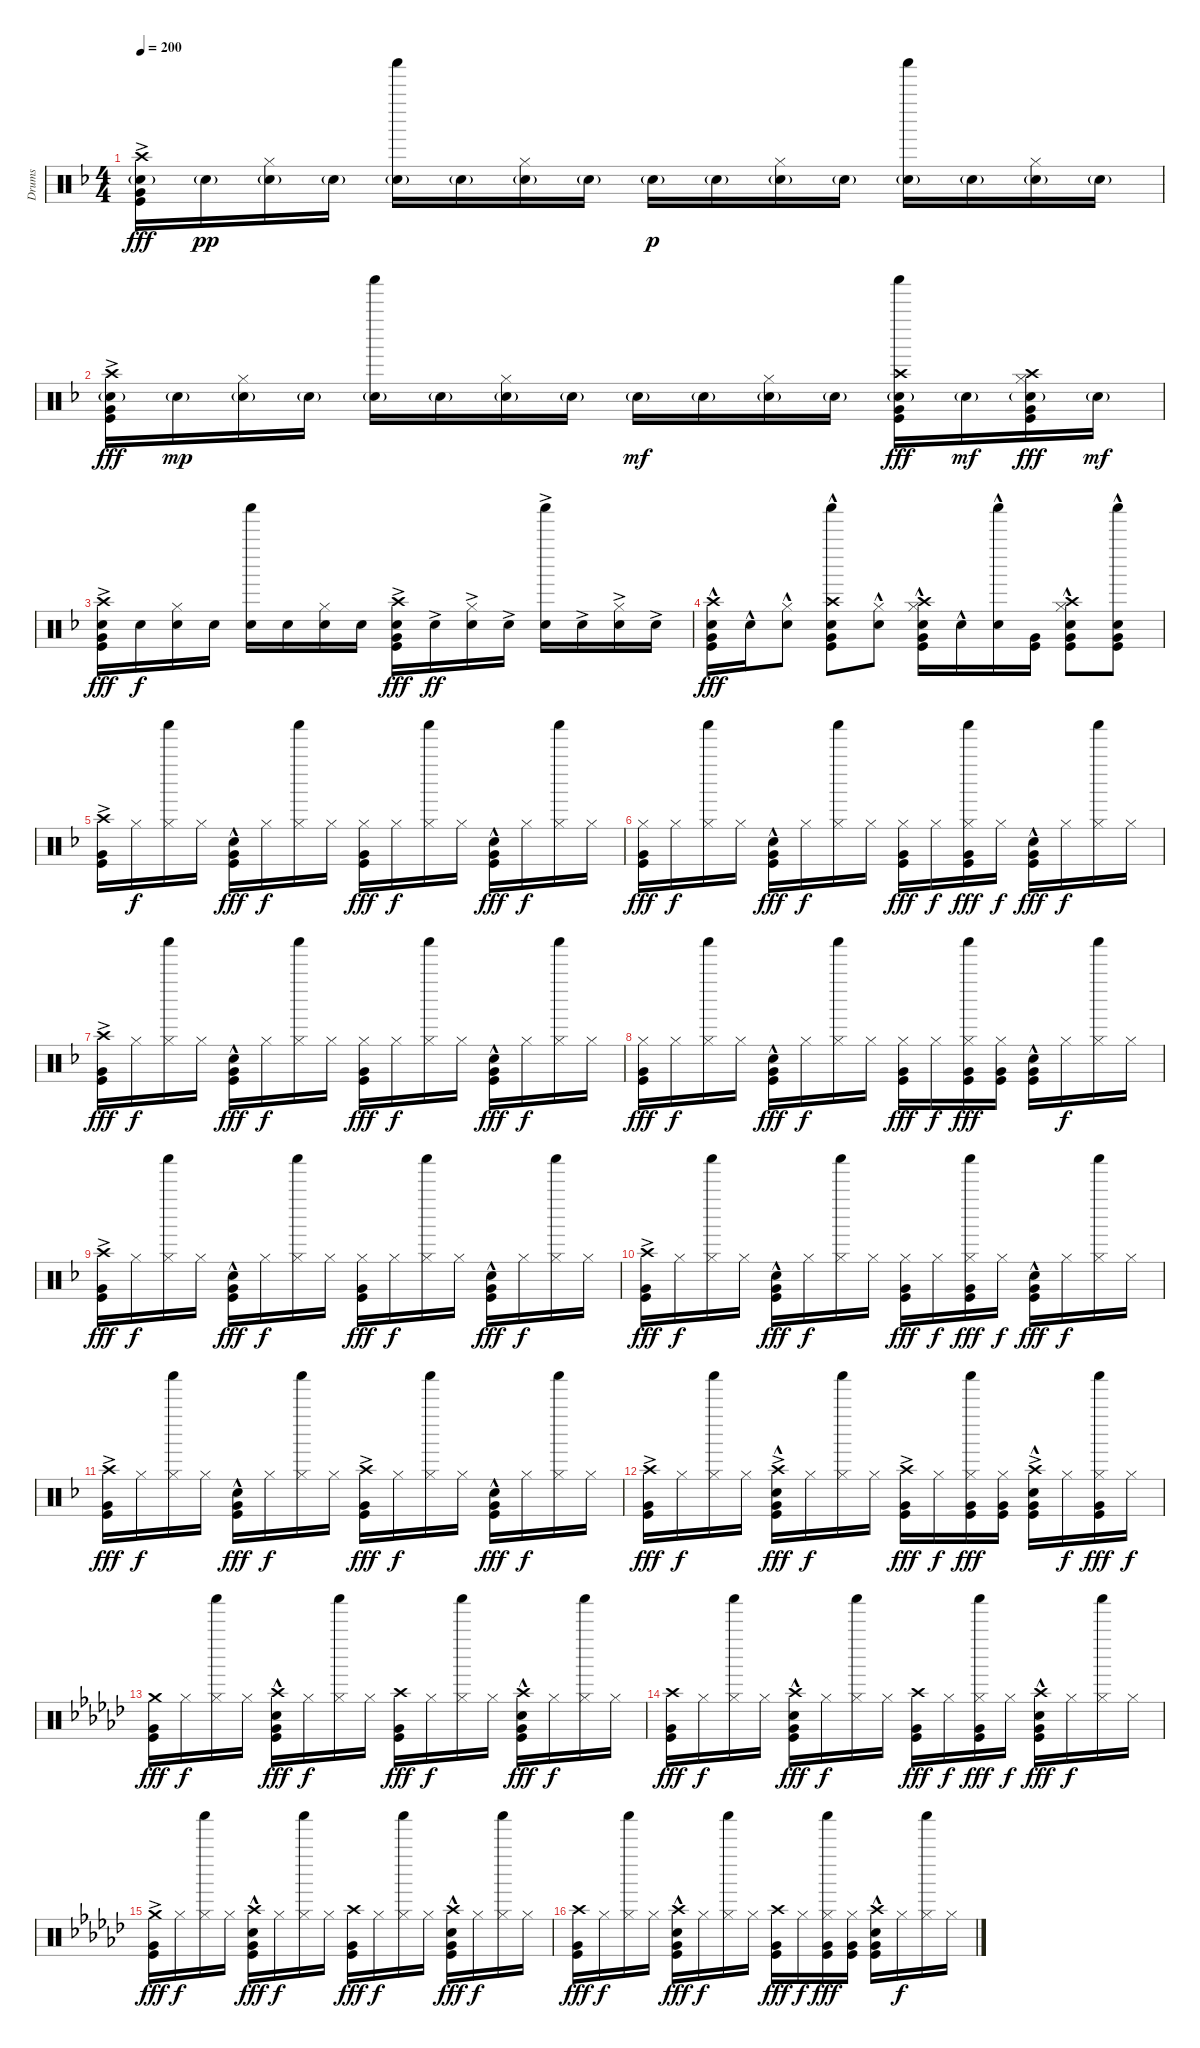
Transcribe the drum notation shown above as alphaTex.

\track ("Drums" "Drums") {instrument percussion bank 25}
\staff {score}
\articulation defaults
\ts (4 4)
\tempo 200
\clef neutral
\ks dminor
("Crash high (hit)"{ac} "Electric Snare (hit)"{g} "Very Low Tom (hit)" "Kick (hit)").16{dy fff} "Electric Snare (hit)"{g}.16{dy pp} ("Hi-Hat (closed)" "Electric Snare (hit)"{g}).16 "Electric Snare (hit)"{g}.16 ("Shaker (hit)" "Electric Snare (hit)"{g}).16 "Electric Snare (hit)"{g}.16 ("Hi-Hat (closed)" "Electric Snare (hit)"{g}).16 "Electric Snare (hit)"{g}.16 "Electric Snare (hit)"{g}.16{dy p} "Electric Snare (hit)"{g}.16 ("Hi-Hat (closed)" "Electric Snare (hit)"{g}).16 "Electric Snare (hit)"{g}.16 ("Shaker (hit)" "Electric Snare (hit)"{g}).16 "Electric Snare (hit)"{g}.16 ("Hi-Hat (closed)" "Electric Snare (hit)"{g}).16 "Electric Snare (hit)"{g}.16 |
("Crash high (hit)"{ac} "Electric Snare (hit)"{g} "Very Low Tom (hit)" "Kick (hit)").16{dy fff} "Electric Snare (hit)"{g}.16{dy mp} ("Hi-Hat (closed)" "Electric Snare (hit)"{g}).16 "Electric Snare (hit)"{g}.16 ("Shaker (hit)" "Electric Snare (hit)"{g}).16 "Electric Snare (hit)"{g}.16 ("Hi-Hat (closed)" "Electric Snare (hit)"{g}).16 "Electric Snare (hit)"{g}.16 "Electric Snare (hit)"{g}.16{dy mf} "Electric Snare (hit)"{g}.16 ("Hi-Hat (closed)" "Electric Snare (hit)"{g}).16 "Electric Snare (hit)"{g}.16 ("Crash high (hit)" "Shaker (hit)" "Electric Snare (hit)"{g} "Very Low Tom (hit)" "Kick (hit)").16{dy fff} "Electric Snare (hit)"{g}.16{dy mf} ("Crash high (hit)" "Hi-Hat (closed)" "Electric Snare (hit)"{g} "Very Low Tom (hit)" "Kick (hit)").16{dy fff} "Electric Snare (hit)"{g}.16{dy mf} |
("Crash high (hit)"{ac} "Electric Snare (hit)" "Very Low Tom (hit)" "Kick (hit)").16{dy fff} "Electric Snare (hit)".16{dy f} ("Hi-Hat (closed)" "Electric Snare (hit)").16 "Electric Snare (hit)".16 ("Shaker (hit)" "Electric Snare (hit)").16 "Electric Snare (hit)".16 ("Hi-Hat (closed)" "Electric Snare (hit)").16 "Electric Snare (hit)".16 ("Crash high (hit)"{ac} "Electric Snare (hit)"{ac} "Very Low Tom (hit)" "Kick (hit)").16{dy fff} "Electric Snare (hit)"{ac}.16{dy ff} ("Hi-Hat (closed)" "Electric Snare (hit)"{ac}).16 "Electric Snare (hit)"{ac}.16 ("Shaker (hit)" "Electric Snare (hit)"{ac}).16 "Electric Snare (hit)"{ac}.16 ("Hi-Hat (closed)" "Electric Snare (hit)"{ac}).16 "Electric Snare (hit)"{ac}.16 |
("Crash high (hit)" "Electric Snare (hit)"{hac} "Very Low Tom (hit)" "Kick (hit)").16{dy fff} "Electric Snare (hit)"{hac}.16 ("Hi-Hat (closed)" "Electric Snare (hit)"{hac}).8 ("Crash high (hit)" "Shaker (hit)" "Electric Snare (hit)"{hac} "Very Low Tom (hit)" "Kick (hit)").8 ("Hi-Hat (closed)" "Electric Snare (hit)"{hac}).8 ("Crash high (hit)" "Hi-Hat (closed)" "Electric Snare (hit)"{hac} "Very Low Tom (hit)" "Kick (hit)").16 "Electric Snare (hit)"{hac}.16 ("Shaker (hit)" "Electric Snare (hit)"{hac}).16 ("Very Low Tom (hit)" "Kick (hit)").16 ("Crash high (hit)" "Hi-Hat (closed)" "Electric Snare (hit)"{hac} "Very Low Tom (hit)" "Kick (hit)").8 ("Shaker (hit)" "Electric Snare (hit)"{hac} "Very Low Tom (hit)" "Kick (hit)").8 |
("Crash high (hit)"{ac} "Very Low Tom (hit)" "Kick (hit)").16 "Hi-Hat (closed)".16{dy f} ("Shaker (hit)" "Hi-Hat (closed)").16 "Hi-Hat (closed)".16 ("Snare (hit) 2"{hac} "Very Low Tom (hit)" "Kick (hit)").16{dy fff} "Hi-Hat (closed)".16{dy f} ("Shaker (hit)" "Hi-Hat (closed)").16 "Hi-Hat (closed)".16 ("Hi-Hat (closed)" "Very Low Tom (hit)" "Kick (hit)").16{dy fff} "Hi-Hat (closed)".16{dy f} ("Shaker (hit)" "Hi-Hat (closed)").16 "Hi-Hat (closed)".16 ("Snare (hit) 2"{hac} "Very Low Tom (hit)" "Kick (hit)").16{dy fff} "Hi-Hat (closed)".16{dy f} ("Shaker (hit)" "Hi-Hat (closed)").16 "Hi-Hat (closed)".16 |
("Hi-Hat (closed)" "Very Low Tom (hit)" "Kick (hit)").16{dy fff} "Hi-Hat (closed)".16{dy f} ("Shaker (hit)" "Hi-Hat (closed)").16 "Hi-Hat (closed)".16 ("Snare (hit) 2"{hac} "Very Low Tom (hit)" "Kick (hit)").16{dy fff} "Hi-Hat (closed)".16{dy f} ("Shaker (hit)" "Hi-Hat (closed)").16 "Hi-Hat (closed)".16 ("Hi-Hat (closed)" "Very Low Tom (hit)" "Kick (hit)").16{dy fff} "Hi-Hat (closed)".16{dy f} ("Shaker (hit)" "Hi-Hat (closed)" "Very Low Tom (hit)" "Kick (hit)").16{dy fff} "Hi-Hat (closed)".16{dy f} ("Snare (hit) 2"{hac} "Very Low Tom (hit)" "Kick (hit)").16{dy fff} "Hi-Hat (closed)".16{dy f} ("Shaker (hit)" "Hi-Hat (closed)").16 "Hi-Hat (closed)".16 |
("Crash high (hit)"{ac} "Very Low Tom (hit)" "Kick (hit)").16{dy fff} "Hi-Hat (closed)".16{dy f} ("Shaker (hit)" "Hi-Hat (closed)").16 "Hi-Hat (closed)".16 ("Snare (hit) 2"{hac} "Very Low Tom (hit)" "Kick (hit)").16{dy fff} "Hi-Hat (closed)".16{dy f} ("Shaker (hit)" "Hi-Hat (closed)").16 "Hi-Hat (closed)".16 ("Hi-Hat (closed)" "Very Low Tom (hit)" "Kick (hit)").16{dy fff} "Hi-Hat (closed)".16{dy f} ("Shaker (hit)" "Hi-Hat (closed)").16 "Hi-Hat (closed)".16 ("Snare (hit) 2"{hac} "Very Low Tom (hit)" "Kick (hit)").16{dy fff} "Hi-Hat (closed)".16{dy f} ("Shaker (hit)" "Hi-Hat (closed)").16 "Hi-Hat (closed)".16 |
("Hi-Hat (closed)" "Very Low Tom (hit)" "Kick (hit)").16{dy fff} "Hi-Hat (closed)".16{dy f} ("Shaker (hit)" "Hi-Hat (closed)").16 "Hi-Hat (closed)".16 ("Snare (hit) 2"{hac} "Very Low Tom (hit)" "Kick (hit)").16{dy fff} "Hi-Hat (closed)".16{dy f} ("Shaker (hit)" "Hi-Hat (closed)").16 "Hi-Hat (closed)".16 ("Hi-Hat (closed)" "Very Low Tom (hit)" "Kick (hit)").16{dy fff} "Hi-Hat (closed)".16{dy f} ("Shaker (hit)" "Hi-Hat (closed)" "Very Low Tom (hit)" "Kick (hit)").16{dy fff} ("Hi-Hat (closed)" "Very Low Tom (hit)" "Kick (hit)").16 ("Snare (hit) 2"{hac} "Very Low Tom (hit)" "Kick (hit)").16 "Hi-Hat (closed)".16{dy f} ("Shaker (hit)" "Hi-Hat (closed)").16 "Hi-Hat (closed)".16 |
("Crash high (hit)"{ac} "Very Low Tom (hit)" "Kick (hit)").16{dy fff} "Hi-Hat (closed)".16{dy f} ("Shaker (hit)" "Hi-Hat (closed)").16 "Hi-Hat (closed)".16 ("Snare (hit) 2"{hac} "Very Low Tom (hit)" "Kick (hit)").16{dy fff} "Hi-Hat (closed)".16{dy f} ("Shaker (hit)" "Hi-Hat (closed)").16 "Hi-Hat (closed)".16 ("Hi-Hat (closed)" "Very Low Tom (hit)" "Kick (hit)").16{dy fff} "Hi-Hat (closed)".16{dy f} ("Shaker (hit)" "Hi-Hat (closed)").16 "Hi-Hat (closed)".16 ("Snare (hit) 2"{hac} "Very Low Tom (hit)" "Kick (hit)").16{dy fff} "Hi-Hat (closed)".16{dy f} ("Shaker (hit)" "Hi-Hat (closed)").16 "Hi-Hat (closed)".16 |
("Crash high (hit)"{ac} "Very Low Tom (hit)" "Kick (hit)").16{dy fff} "Hi-Hat (closed)".16{dy f} ("Shaker (hit)" "Hi-Hat (closed)").16 "Hi-Hat (closed)".16 ("Snare (hit) 2"{hac} "Very Low Tom (hit)" "Kick (hit)").16{dy fff} "Hi-Hat (closed)".16{dy f} ("Shaker (hit)" "Hi-Hat (closed)").16 "Hi-Hat (closed)".16 ("Hi-Hat (closed)" "Very Low Tom (hit)" "Kick (hit)").16{dy fff} "Hi-Hat (closed)".16{dy f} ("Shaker (hit)" "Hi-Hat (closed)" "Very Low Tom (hit)" "Kick (hit)").16{dy fff} "Hi-Hat (closed)".16{dy f} ("Snare (hit) 2"{hac} "Very Low Tom (hit)" "Kick (hit)").16{dy fff} "Hi-Hat (closed)".16{dy f} ("Shaker (hit)" "Hi-Hat (closed)").16 "Hi-Hat (closed)".16 |
("Crash high (hit)"{ac} "Very Low Tom (hit)" "Kick (hit)").16{dy fff} "Hi-Hat (closed)".16{dy f} ("Shaker (hit)" "Hi-Hat (closed)").16 "Hi-Hat (closed)".16 ("Snare (hit) 2"{hac} "Very Low Tom (hit)" "Kick (hit)").16{dy fff} "Hi-Hat (closed)".16{dy f} ("Shaker (hit)" "Hi-Hat (closed)").16 "Hi-Hat (closed)".16 ("Crash high (hit)"{ac} "Very Low Tom (hit)" "Kick (hit)").16{dy fff} "Hi-Hat (closed)".16{dy f} ("Shaker (hit)" "Hi-Hat (closed)").16 "Hi-Hat (closed)".16 ("Snare (hit) 2"{hac} "Very Low Tom (hit)" "Kick (hit)").16{dy fff} "Hi-Hat (closed)".16{dy f} ("Shaker (hit)" "Hi-Hat (closed)").16 "Hi-Hat (closed)".16 |
("Crash high (hit)"{ac} "Very Low Tom (hit)" "Kick (hit)").16{dy fff} "Hi-Hat (closed)".16{dy f} ("Shaker (hit)" "Hi-Hat (closed)").16 "Hi-Hat (closed)".16 ("Crash high (hit)"{ac} "Snare (hit) 2"{hac} "Very Low Tom (hit)" "Kick (hit)").16{dy fff} "Hi-Hat (closed)".16{dy f} ("Shaker (hit)" "Hi-Hat (closed)").16 "Hi-Hat (closed)".16 ("Crash high (hit)"{ac} "Very Low Tom (hit)" "Kick (hit)").16{dy fff} "Hi-Hat (closed)".16{dy f} ("Shaker (hit)" "Hi-Hat (closed)" "Very Low Tom (hit)" "Kick (hit)").16{dy fff} ("Hi-Hat (closed)" "Very Low Tom (hit)" "Kick (hit)").16 ("Crash high (hit)"{ac} "Snare (hit) 2"{hac} "Very Low Tom (hit)" "Kick (hit)").16 "Hi-Hat (closed)".16{dy f} ("Shaker (hit)" "Hi-Hat (closed)" "Very Low Tom (hit)" "Kick (hit)").16{dy fff} "Hi-Hat (closed)".16{dy f} |
\ks ebminor
("Crash medium (hit)" "Very Low Tom (hit)" "Kick (hit)").16{dy fff} "Hi-Hat (closed)".16{dy f} ("Shaker (hit)" "Hi-Hat (closed)").16 "Hi-Hat (closed)".16 ("Crash high (hit)" "Snare (hit) 2"{hac} "Very Low Tom (hit)" "Kick (hit)").16{dy fff} "Hi-Hat (closed)".16{dy f} ("Shaker (hit)" "Hi-Hat (closed)").16 "Hi-Hat (closed)".16 ("Crash high (hit)" "Very Low Tom (hit)" "Kick (hit)").16{dy fff} "Hi-Hat (closed)".16{dy f} ("Shaker (hit)" "Hi-Hat (closed)").16 "Hi-Hat (closed)".16 ("Crash high (hit)" "Snare (hit) 2"{hac} "Very Low Tom (hit)" "Kick (hit)").16{dy fff} "Hi-Hat (closed)".16{dy f} ("Shaker (hit)" "Hi-Hat (closed)").16 "Hi-Hat (closed)".16 |
("Crash high (hit)" "Very Low Tom (hit)" "Kick (hit)").16{dy fff} "Hi-Hat (closed)".16{dy f} ("Shaker (hit)" "Hi-Hat (closed)").16 "Hi-Hat (closed)".16 ("Crash high (hit)" "Snare (hit) 2"{hac} "Very Low Tom (hit)" "Kick (hit)").16{dy fff} "Hi-Hat (closed)".16{dy f} ("Shaker (hit)" "Hi-Hat (closed)").16 "Hi-Hat (closed)".16 ("Crash high (hit)" "Very Low Tom (hit)" "Kick (hit)").16{dy fff} "Hi-Hat (closed)".16{dy f} ("Shaker (hit)" "Hi-Hat (closed)" "Very Low Tom (hit)" "Kick (hit)").16{dy fff} "Hi-Hat (closed)".16{dy f} ("Crash high (hit)" "Snare (hit) 2"{hac} "Very Low Tom (hit)" "Kick (hit)").16{dy fff} "Hi-Hat (closed)".16{dy f} ("Shaker (hit)" "Hi-Hat (closed)").16 "Hi-Hat (closed)".16 |
("Crash medium (hit)"{ac} "Very Low Tom (hit)" "Kick (hit)").16{dy fff} "Hi-Hat (closed)".16{dy f} ("Shaker (hit)" "Hi-Hat (closed)").16 "Hi-Hat (closed)".16 ("Crash high (hit)" "Snare (hit) 2"{hac} "Very Low Tom (hit)" "Kick (hit)").16{dy fff} "Hi-Hat (closed)".16{dy f} ("Shaker (hit)" "Hi-Hat (closed)").16 "Hi-Hat (closed)".16 ("Crash high (hit)" "Very Low Tom (hit)" "Kick (hit)").16{dy fff} "Hi-Hat (closed)".16{dy f} ("Shaker (hit)" "Hi-Hat (closed)").16 "Hi-Hat (closed)".16 ("Crash high (hit)" "Snare (hit) 2"{hac} "Very Low Tom (hit)" "Kick (hit)").16{dy fff} "Hi-Hat (closed)".16{dy f} ("Shaker (hit)" "Hi-Hat (closed)").16 "Hi-Hat (closed)".16 |
("Crash high (hit)" "Very Low Tom (hit)" "Kick (hit)").16{dy fff} "Hi-Hat (closed)".16{dy f} ("Shaker (hit)" "Hi-Hat (closed)").16 "Hi-Hat (closed)".16 ("Crash high (hit)" "Snare (hit) 2"{hac} "Very Low Tom (hit)" "Kick (hit)").16{dy fff} "Hi-Hat (closed)".16{dy f} ("Shaker (hit)" "Hi-Hat (closed)").16 "Hi-Hat (closed)".16 ("Crash high (hit)" "Very Low Tom (hit)" "Kick (hit)").16{dy fff} "Hi-Hat (closed)".16{dy f} ("Shaker (hit)" "Hi-Hat (closed)" "Very Low Tom (hit)" "Kick (hit)").16{dy fff} ("Hi-Hat (closed)" "Very Low Tom (hit)" "Kick (hit)").16 ("Crash high (hit)" "Snare (hit) 2"{hac} "Very Low Tom (hit)" "Kick (hit)").16 "Hi-Hat (closed)".16{dy f} ("Shaker (hit)" "Hi-Hat (closed)").16 "Hi-Hat (closed)".16
